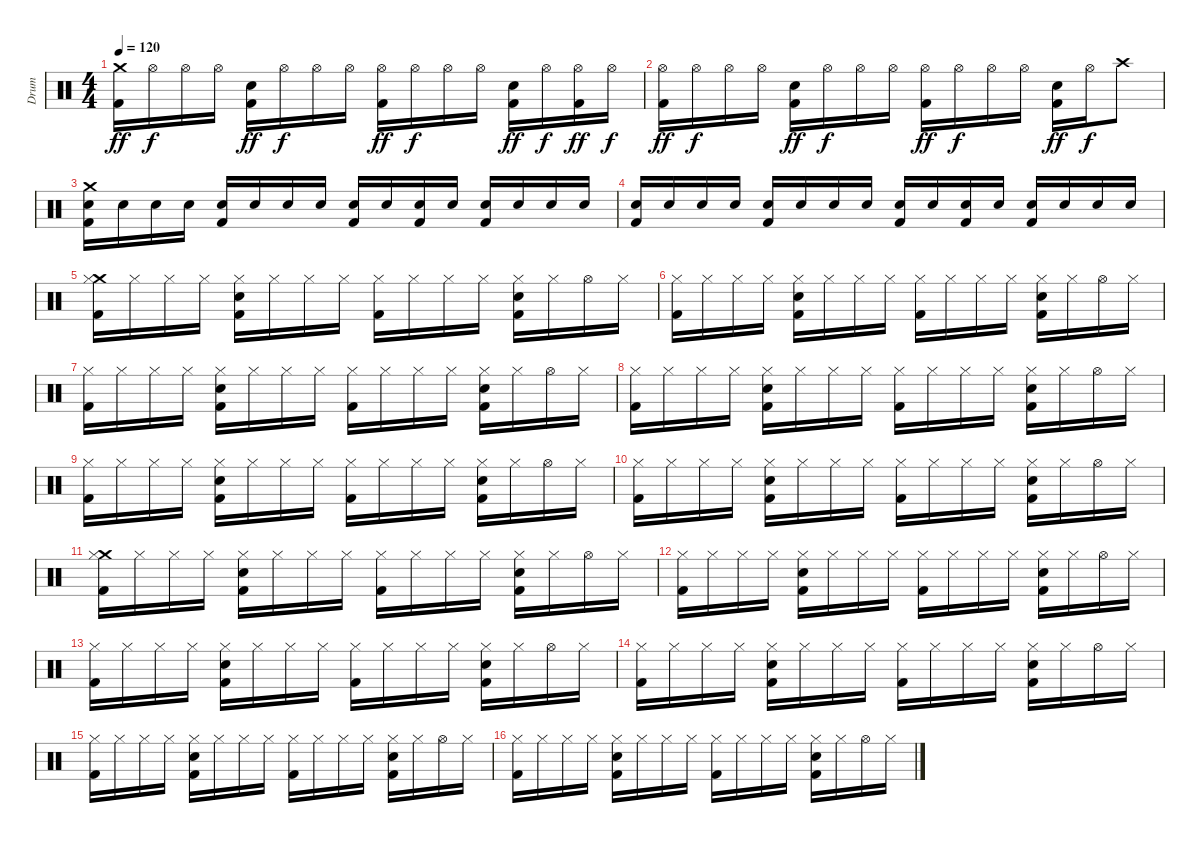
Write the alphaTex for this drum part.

\track ("Drum" "Drum") {instrument percussion}
\staff {score}
\articulation defaults
\ts (4 4)
\tempo 120
\clef neutral
\ks c
("Crash medium (hit)" "Kick (hit) 2").16{dy ff} "Hi-Hat (open)".16{dy f} "Hi-Hat (open)".16 "Hi-Hat (open)".16 ("Kick (hit) 2" "Electric Snare (hit)").16{dy ff} "Hi-Hat (open)".16{dy f} "Hi-Hat (open)".16 "Hi-Hat (open)".16 ("Hi-Hat (open)" "Kick (hit) 2").16{dy ff} "Hi-Hat (open)".16{dy f} "Hi-Hat (open)".16 "Hi-Hat (open)".16 ("Kick (hit) 2" "Electric Snare (hit)").16{dy ff} "Hi-Hat (open)".16{dy f} ("Hi-Hat (open)" "Kick (hit) 2").16{dy ff} "Hi-Hat (open)".16{dy f} |
("Hi-Hat (open)" "Kick (hit) 2").16{dy ff} "Hi-Hat (open)".16{dy f} "Hi-Hat (open)".16 "Hi-Hat (open)".16 ("Kick (hit) 2" "Electric Snare (hit)").16{dy ff} "Hi-Hat (open)".16{dy f} "Hi-Hat (open)".16 "Hi-Hat (open)".16 ("Hi-Hat (open)" "Kick (hit) 2").16{dy ff} "Hi-Hat (open)".16{dy f} "Hi-Hat (open)".16 "Hi-Hat (open)".16 ("Kick (hit) 2" "Electric Snare (hit)").16{dy ff} "Hi-Hat (open)".16{dy f} "Crash high (hit)".8 |
("Electric Snare (hit)" "Crash medium (hit)" "Kick (hit) 2").16 "Electric Snare (hit)".16 "Electric Snare (hit)".16 "Electric Snare (hit)".16 ("Electric Snare (hit)" "Kick (hit) 2").16 "Electric Snare (hit)".16 "Electric Snare (hit)".16 "Electric Snare (hit)".16 ("Electric Snare (hit)" "Kick (hit) 2").16 "Electric Snare (hit)".16 ("Electric Snare (hit)" "Kick (hit) 2").16 "Electric Snare (hit)".16 ("Electric Snare (hit)" "Kick (hit) 2").16 "Electric Snare (hit)".16 "Electric Snare (hit)".16 "Electric Snare (hit)".16 |
("Electric Snare (hit)" "Kick (hit) 2").16 "Electric Snare (hit)".16 "Electric Snare (hit)".16 "Electric Snare (hit)".16 ("Electric Snare (hit)" "Kick (hit) 2").16 "Electric Snare (hit)".16 "Electric Snare (hit)".16 "Electric Snare (hit)".16 ("Electric Snare (hit)" "Kick (hit) 2").16 "Electric Snare (hit)".16 ("Electric Snare (hit)" "Kick (hit) 2").16 "Electric Snare (hit)".16 ("Electric Snare (hit)" "Kick (hit) 2").16 "Electric Snare (hit)".16 "Electric Snare (hit)".16 "Electric Snare (hit)".16 |
("Crash medium (hit)" "Hi-Hat (closed)" "Kick (hit) 2").16 "Hi-Hat (closed)".16 "Hi-Hat (closed)".16 "Hi-Hat (closed)".16 ("Hi-Hat (closed)" "Kick (hit) 2" "Electric Snare (hit)").16 "Hi-Hat (closed)".16 "Hi-Hat (closed)".16 "Hi-Hat (closed)".16 ("Hi-Hat (closed)" "Kick (hit) 2").16 "Hi-Hat (closed)".16 "Hi-Hat (closed)".16 "Hi-Hat (closed)".16 ("Hi-Hat (closed)" "Kick (hit) 2" "Electric Snare (hit)").16 "Hi-Hat (closed)".16 "Hi-Hat (open)".16 "Hi-Hat (closed)".16 |
("Hi-Hat (closed)" "Kick (hit) 2").16 "Hi-Hat (closed)".16 "Hi-Hat (closed)".16 "Hi-Hat (closed)".16 ("Hi-Hat (closed)" "Kick (hit) 2" "Electric Snare (hit)").16 "Hi-Hat (closed)".16 "Hi-Hat (closed)".16 "Hi-Hat (closed)".16 ("Hi-Hat (closed)" "Kick (hit) 2").16 "Hi-Hat (closed)".16 "Hi-Hat (closed)".16 "Hi-Hat (closed)".16 ("Hi-Hat (closed)" "Kick (hit) 2" "Electric Snare (hit)").16 "Hi-Hat (closed)".16 "Hi-Hat (open)".16 "Hi-Hat (closed)".16 |
("Hi-Hat (closed)" "Kick (hit) 2").16 "Hi-Hat (closed)".16 "Hi-Hat (closed)".16 "Hi-Hat (closed)".16 ("Hi-Hat (closed)" "Kick (hit) 2" "Electric Snare (hit)").16 "Hi-Hat (closed)".16 "Hi-Hat (closed)".16 "Hi-Hat (closed)".16 ("Hi-Hat (closed)" "Kick (hit) 2").16 "Hi-Hat (closed)".16 "Hi-Hat (closed)".16 "Hi-Hat (closed)".16 ("Hi-Hat (closed)" "Kick (hit) 2" "Electric Snare (hit)").16 "Hi-Hat (closed)".16 "Hi-Hat (open)".16 "Hi-Hat (closed)".16 |
("Hi-Hat (closed)" "Kick (hit) 2").16 "Hi-Hat (closed)".16 "Hi-Hat (closed)".16 "Hi-Hat (closed)".16 ("Hi-Hat (closed)" "Kick (hit) 2" "Electric Snare (hit)").16 "Hi-Hat (closed)".16 "Hi-Hat (closed)".16 "Hi-Hat (closed)".16 ("Hi-Hat (closed)" "Kick (hit) 2").16 "Hi-Hat (closed)".16 "Hi-Hat (closed)".16 "Hi-Hat (closed)".16 ("Hi-Hat (closed)" "Kick (hit) 2" "Electric Snare (hit)").16 "Hi-Hat (closed)".16 "Hi-Hat (open)".16 "Hi-Hat (closed)".16 |
("Hi-Hat (closed)" "Kick (hit) 2").16 "Hi-Hat (closed)".16 "Hi-Hat (closed)".16 "Hi-Hat (closed)".16 ("Hi-Hat (closed)" "Kick (hit) 2" "Electric Snare (hit)").16 "Hi-Hat (closed)".16 "Hi-Hat (closed)".16 "Hi-Hat (closed)".16 ("Hi-Hat (closed)" "Kick (hit) 2").16 "Hi-Hat (closed)".16 "Hi-Hat (closed)".16 "Hi-Hat (closed)".16 ("Hi-Hat (closed)" "Kick (hit) 2" "Electric Snare (hit)").16 "Hi-Hat (closed)".16 "Hi-Hat (open)".16 "Hi-Hat (closed)".16 |
("Hi-Hat (closed)" "Kick (hit) 2").16 "Hi-Hat (closed)".16 "Hi-Hat (closed)".16 "Hi-Hat (closed)".16 ("Hi-Hat (closed)" "Kick (hit) 2" "Electric Snare (hit)").16 "Hi-Hat (closed)".16 "Hi-Hat (closed)".16 "Hi-Hat (closed)".16 ("Hi-Hat (closed)" "Kick (hit) 2").16 "Hi-Hat (closed)".16 "Hi-Hat (closed)".16 "Hi-Hat (closed)".16 ("Hi-Hat (closed)" "Kick (hit) 2" "Electric Snare (hit)").16 "Hi-Hat (closed)".16 "Hi-Hat (open)".16 "Hi-Hat (closed)".16 |
("Crash medium (hit)" "Hi-Hat (closed)" "Kick (hit) 2").16 "Hi-Hat (closed)".16 "Hi-Hat (closed)".16 "Hi-Hat (closed)".16 ("Hi-Hat (closed)" "Kick (hit) 2" "Electric Snare (hit)").16 "Hi-Hat (closed)".16 "Hi-Hat (closed)".16 "Hi-Hat (closed)".16 ("Hi-Hat (closed)" "Kick (hit) 2").16 "Hi-Hat (closed)".16 "Hi-Hat (closed)".16 "Hi-Hat (closed)".16 ("Hi-Hat (closed)" "Kick (hit) 2" "Electric Snare (hit)").16 "Hi-Hat (closed)".16 "Hi-Hat (open)".16 "Hi-Hat (closed)".16 |
("Hi-Hat (closed)" "Kick (hit) 2").16 "Hi-Hat (closed)".16 "Hi-Hat (closed)".16 "Hi-Hat (closed)".16 ("Hi-Hat (closed)" "Kick (hit) 2" "Electric Snare (hit)").16 "Hi-Hat (closed)".16 "Hi-Hat (closed)".16 "Hi-Hat (closed)".16 ("Hi-Hat (closed)" "Kick (hit) 2").16 "Hi-Hat (closed)".16 "Hi-Hat (closed)".16 "Hi-Hat (closed)".16 ("Hi-Hat (closed)" "Kick (hit) 2" "Electric Snare (hit)").16 "Hi-Hat (closed)".16 "Hi-Hat (open)".16 "Hi-Hat (closed)".16 |
("Hi-Hat (closed)" "Kick (hit) 2").16 "Hi-Hat (closed)".16 "Hi-Hat (closed)".16 "Hi-Hat (closed)".16 ("Hi-Hat (closed)" "Kick (hit) 2" "Electric Snare (hit)").16 "Hi-Hat (closed)".16 "Hi-Hat (closed)".16 "Hi-Hat (closed)".16 ("Hi-Hat (closed)" "Kick (hit) 2").16 "Hi-Hat (closed)".16 "Hi-Hat (closed)".16 "Hi-Hat (closed)".16 ("Hi-Hat (closed)" "Kick (hit) 2" "Electric Snare (hit)").16 "Hi-Hat (closed)".16 "Hi-Hat (open)".16 "Hi-Hat (closed)".16 |
("Hi-Hat (closed)" "Kick (hit) 2").16 "Hi-Hat (closed)".16 "Hi-Hat (closed)".16 "Hi-Hat (closed)".16 ("Hi-Hat (closed)" "Kick (hit) 2" "Electric Snare (hit)").16 "Hi-Hat (closed)".16 "Hi-Hat (closed)".16 "Hi-Hat (closed)".16 ("Hi-Hat (closed)" "Kick (hit) 2").16 "Hi-Hat (closed)".16 "Hi-Hat (closed)".16 "Hi-Hat (closed)".16 ("Hi-Hat (closed)" "Kick (hit) 2" "Electric Snare (hit)").16 "Hi-Hat (closed)".16 "Hi-Hat (open)".16 "Hi-Hat (closed)".16 |
("Hi-Hat (closed)" "Kick (hit) 2").16 "Hi-Hat (closed)".16 "Hi-Hat (closed)".16 "Hi-Hat (closed)".16 ("Hi-Hat (closed)" "Kick (hit) 2" "Electric Snare (hit)").16 "Hi-Hat (closed)".16 "Hi-Hat (closed)".16 "Hi-Hat (closed)".16 ("Hi-Hat (closed)" "Kick (hit) 2").16 "Hi-Hat (closed)".16 "Hi-Hat (closed)".16 "Hi-Hat (closed)".16 ("Hi-Hat (closed)" "Kick (hit) 2" "Electric Snare (hit)").16 "Hi-Hat (closed)".16 "Hi-Hat (open)".16 "Hi-Hat (closed)".16 |
("Hi-Hat (closed)" "Kick (hit) 2").16 "Hi-Hat (closed)".16 "Hi-Hat (closed)".16 "Hi-Hat (closed)".16 ("Hi-Hat (closed)" "Kick (hit) 2" "Electric Snare (hit)").16 "Hi-Hat (closed)".16 "Hi-Hat (closed)".16 "Hi-Hat (closed)".16 ("Hi-Hat (closed)" "Kick (hit) 2").16 "Hi-Hat (closed)".16 "Hi-Hat (closed)".16 "Hi-Hat (closed)".16 ("Hi-Hat (closed)" "Kick (hit) 2" "Electric Snare (hit)").16 "Hi-Hat (closed)".16 "Hi-Hat (open)".16 "Hi-Hat (closed)".16
